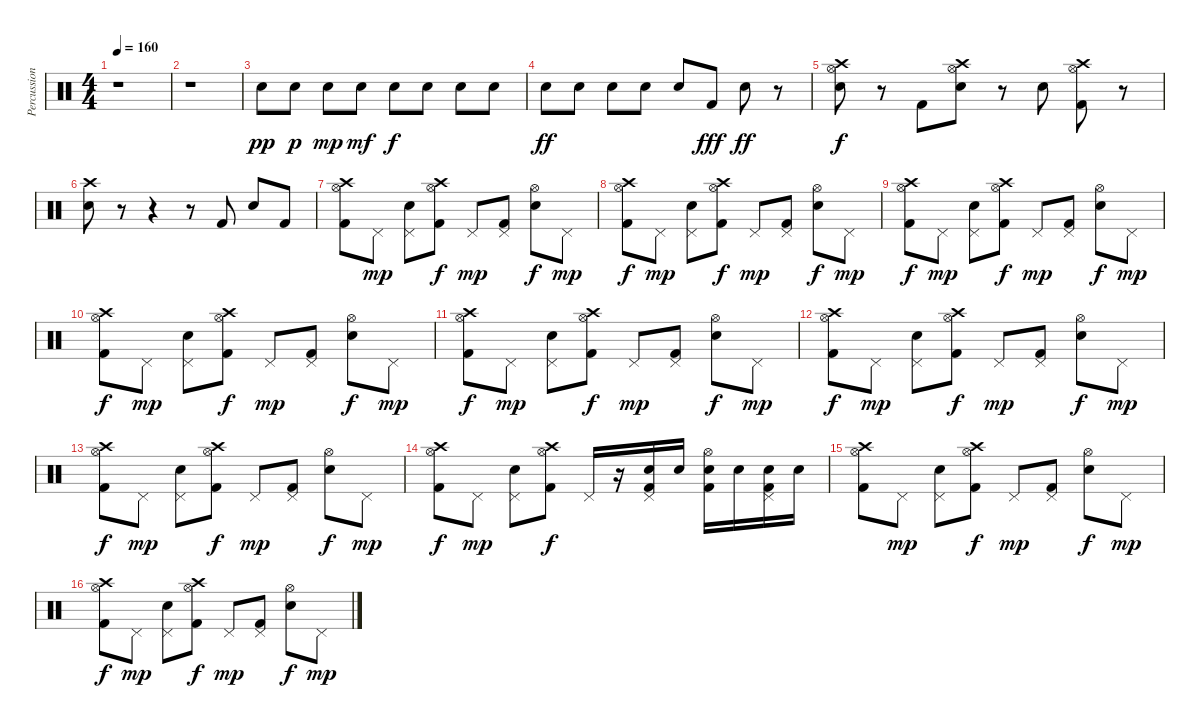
\track ("Percussion" "Percussion") {instrument percussion}
\staff {score}
\articulation defaults
\ts (4 4)
\tempo 160
\clef neutral
\ks c
r.1{dy pp} |
r.1 |
"Snare (hit) 2".8 "Snare (hit) 2".8{dy p} "Snare (hit) 2".8{dy mp} "Snare (hit) 2".8{dy mf} "Snare (hit) 2".8{dy f} "Snare (hit) 2".8 "Snare (hit) 2".8 "Snare (hit) 2".8 |
"Snare (hit) 2".8{dy ff} "Snare (hit) 2".8 "Snare (hit) 2".8 "Snare (hit) 2".8 "Snare (hit) 2".8 "Kick (hit) 2".8{dy fff} "Snare (hit) 2".8{dy ff} r.8 |
("Hi-Hat (open)" "Crash high (hit)" "Snare (hit) 2").8{dy f} r.8 "Kick (hit) 2".8 ("Hi-Hat (open)" "Crash high (hit)" "Snare (hit) 2").8 r.8 "Snare (hit) 2".8 ("Hi-Hat (open)" "Crash high (hit)" "Kick (hit) 2").8 r.8 |
("Crash high (hit)" "Snare (hit) 2").8 r.8 r.4 r.8 "Kick (hit) 2".8 "Snare (hit) 2".8 "Kick (hit) 2".8 |
("Hi-Hat (open)" "Crash high (hit)" "Kick (hit) 2").8 "Pedal Hi-Hat (hit)".8{dy mp} ("Pedal Hi-Hat (hit)" "Snare (hit) 2").8 ("Hi-Hat (open)" "Crash high (hit)" "Kick (hit) 2").8{dy f} "Pedal Hi-Hat (hit)".8{dy mp} ("Pedal Hi-Hat (hit)" "Kick (hit) 2").8 ("Hi-Hat (open)" "Snare (hit) 2").8{dy f} "Pedal Hi-Hat (hit)".8{dy mp} |
("Hi-Hat (open)" "Crash high (hit)" "Kick (hit) 2").8{dy f} "Pedal Hi-Hat (hit)".8{dy mp} ("Pedal Hi-Hat (hit)" "Snare (hit) 2").8 ("Hi-Hat (open)" "Crash high (hit)" "Kick (hit) 2").8{dy f} "Pedal Hi-Hat (hit)".8{dy mp} ("Pedal Hi-Hat (hit)" "Kick (hit) 2").8 ("Hi-Hat (open)" "Snare (hit) 2").8{dy f} "Pedal Hi-Hat (hit)".8{dy mp} |
("Hi-Hat (open)" "Crash high (hit)" "Kick (hit) 2").8{dy f} "Pedal Hi-Hat (hit)".8{dy mp} ("Pedal Hi-Hat (hit)" "Snare (hit) 2").8 ("Hi-Hat (open)" "Crash high (hit)" "Kick (hit) 2").8{dy f} "Pedal Hi-Hat (hit)".8{dy mp} ("Pedal Hi-Hat (hit)" "Kick (hit) 2").8 ("Hi-Hat (open)" "Snare (hit) 2").8{dy f} "Pedal Hi-Hat (hit)".8{dy mp} |
("Hi-Hat (open)" "Crash high (hit)" "Kick (hit) 2").8{dy f} "Pedal Hi-Hat (hit)".8{dy mp} ("Pedal Hi-Hat (hit)" "Snare (hit) 2").8 ("Hi-Hat (open)" "Crash high (hit)" "Kick (hit) 2").8{dy f} "Pedal Hi-Hat (hit)".8{dy mp} ("Pedal Hi-Hat (hit)" "Kick (hit) 2").8 ("Hi-Hat (open)" "Snare (hit) 2").8{dy f} "Pedal Hi-Hat (hit)".8{dy mp} |
("Hi-Hat (open)" "Crash high (hit)" "Kick (hit) 2").8{dy f} "Pedal Hi-Hat (hit)".8{dy mp} ("Pedal Hi-Hat (hit)" "Snare (hit) 2").8 ("Hi-Hat (open)" "Crash high (hit)" "Kick (hit) 2").8{dy f} "Pedal Hi-Hat (hit)".8{dy mp} ("Pedal Hi-Hat (hit)" "Kick (hit) 2").8 ("Hi-Hat (open)" "Snare (hit) 2").8{dy f} "Pedal Hi-Hat (hit)".8{dy mp} |
("Hi-Hat (open)" "Crash high (hit)" "Kick (hit) 2").8{dy f} "Pedal Hi-Hat (hit)".8{dy mp} ("Pedal Hi-Hat (hit)" "Snare (hit) 2").8 ("Hi-Hat (open)" "Crash high (hit)" "Kick (hit) 2").8{dy f} "Pedal Hi-Hat (hit)".8{dy mp} ("Pedal Hi-Hat (hit)" "Kick (hit) 2").8 ("Hi-Hat (open)" "Snare (hit) 2").8{dy f} "Pedal Hi-Hat (hit)".8{dy mp} |
("Hi-Hat (open)" "Crash high (hit)" "Kick (hit) 2").8{dy f} "Pedal Hi-Hat (hit)".8{dy mp} ("Pedal Hi-Hat (hit)" "Snare (hit) 2").8 ("Hi-Hat (open)" "Crash high (hit)" "Kick (hit) 2").8{dy f} "Pedal Hi-Hat (hit)".8{dy mp} ("Pedal Hi-Hat (hit)" "Kick (hit) 2").8 ("Hi-Hat (open)" "Snare (hit) 2").8{dy f} "Pedal Hi-Hat (hit)".8{dy mp} |
("Hi-Hat (open)" "Crash high (hit)" "Kick (hit) 2").8{dy f} "Pedal Hi-Hat (hit)".8{dy mp} ("Pedal Hi-Hat (hit)" "Snare (hit) 2").8 ("Hi-Hat (open)" "Crash high (hit)" "Kick (hit) 2").8{dy f} "Pedal Hi-Hat (hit)".16 r.16 ("Pedal Hi-Hat (hit)" "Snare (hit) 2" "Kick (hit) 2").16 "Snare (hit) 2".16 ("Hi-Hat (open)" "Snare (hit) 2" "Kick (hit) 2").16 "Snare (hit) 2".16 ("Pedal Hi-Hat (hit)" "Snare (hit) 2" "Kick (hit) 2").16 "Snare (hit) 2".16 |
("Hi-Hat (open)" "Crash high (hit)" "Kick (hit) 2").8 "Pedal Hi-Hat (hit)".8{dy mp} ("Pedal Hi-Hat (hit)" "Snare (hit) 2").8 ("Hi-Hat (open)" "Crash high (hit)" "Kick (hit) 2").8{dy f} "Pedal Hi-Hat (hit)".8{dy mp} ("Pedal Hi-Hat (hit)" "Kick (hit) 2").8 ("Hi-Hat (open)" "Snare (hit) 2").8{dy f} "Pedal Hi-Hat (hit)".8{dy mp} |
("Hi-Hat (open)" "Crash high (hit)" "Kick (hit) 2").8{dy f} "Pedal Hi-Hat (hit)".8{dy mp} ("Pedal Hi-Hat (hit)" "Snare (hit) 2").8 ("Hi-Hat (open)" "Crash high (hit)" "Kick (hit) 2").8{dy f} "Pedal Hi-Hat (hit)".8{dy mp} ("Pedal Hi-Hat (hit)" "Kick (hit) 2").8 ("Hi-Hat (open)" "Snare (hit) 2").8{dy f} "Pedal Hi-Hat (hit)".8{dy mp}
